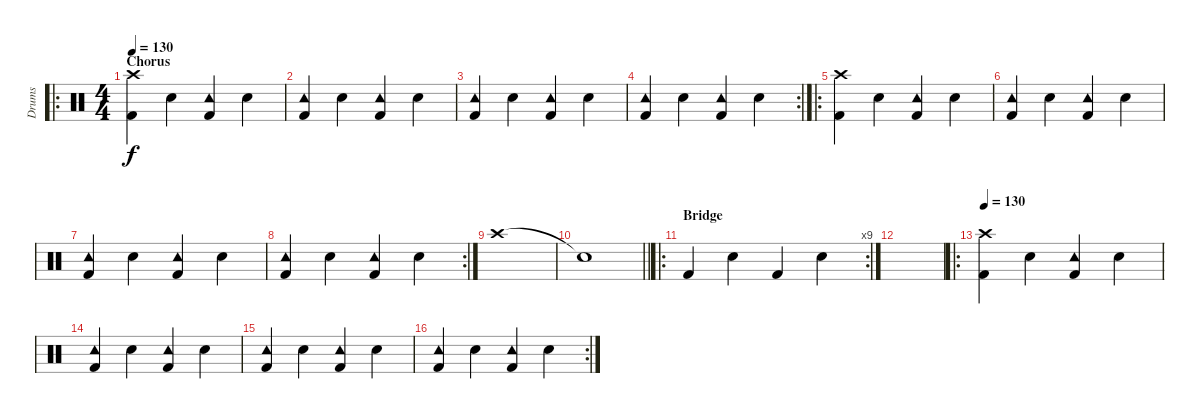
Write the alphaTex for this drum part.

\track ("Drums" "Drums") {instrument percussion}
\staff {score}
\articulation defaults
\ro
\ts (4 4)
\section ("" "Chorus")
\tempo 130
\clef neutral
\ks c
("Crash high (hit)" "Kick (hit) 2").4{dy f} "Snare (hit) 2".4 ("Tambourine (hit)" "Kick (hit) 2").4 "Snare (hit) 2".4 |
("Tambourine (hit)" "Kick (hit) 2").4 "Snare (hit) 2".4 ("Tambourine (hit)" "Kick (hit) 2").4 "Snare (hit) 2".4 |
("Tambourine (hit)" "Kick (hit) 2").4 "Snare (hit) 2".4 ("Tambourine (hit)" "Kick (hit) 2").4 "Snare (hit) 2".4 |
\rc 2
("Tambourine (hit)" "Kick (hit) 2").4 "Snare (hit) 2".4 ("Tambourine (hit)" "Kick (hit) 2").4 "Snare (hit) 2".4 |
\ro
("Crash high (hit)" "Kick (hit) 2").4 "Snare (hit) 2".4 ("Tambourine (hit)" "Kick (hit) 2").4 "Snare (hit) 2".4 |
("Tambourine (hit)" "Kick (hit) 2").4 "Snare (hit) 2".4 ("Tambourine (hit)" "Kick (hit) 2").4 "Snare (hit) 2".4 |
("Tambourine (hit)" "Kick (hit) 2").4 "Snare (hit) 2".4 ("Tambourine (hit)" "Kick (hit) 2").4 "Snare (hit) 2".4 |
\rc 2
("Tambourine (hit)" "Kick (hit) 2").4 "Snare (hit) 2".4 ("Tambourine (hit)" "Kick (hit) 2").4 "Snare (hit) 2".4 |
"Crash high (hit)".1 |
\barLineRight lightlight "Snare (hit)"{t}.1
|
\ro
\rc 9
\section ("" "Bridge")
"Kick (hit) 2".4 "Snare (hit) 2".4 "Kick (hit) 2".4 "Snare (hit) 2".4 |
|
\ro
\tempo 130
("Crash high (hit)" "Kick (hit) 2").4 "Snare (hit) 2".4 ("Tambourine (hit)" "Kick (hit) 2").4 "Snare (hit) 2".4 |
("Tambourine (hit)" "Kick (hit) 2").4 "Snare (hit) 2".4 ("Tambourine (hit)" "Kick (hit) 2").4 "Snare (hit) 2".4 |
("Tambourine (hit)" "Kick (hit) 2").4 "Snare (hit) 2".4 ("Tambourine (hit)" "Kick (hit) 2").4 "Snare (hit) 2".4 |
\rc 2
("Tambourine (hit)" "Kick (hit) 2").4 "Snare (hit) 2".4 ("Tambourine (hit)" "Kick (hit) 2").4 "Snare (hit) 2".4
